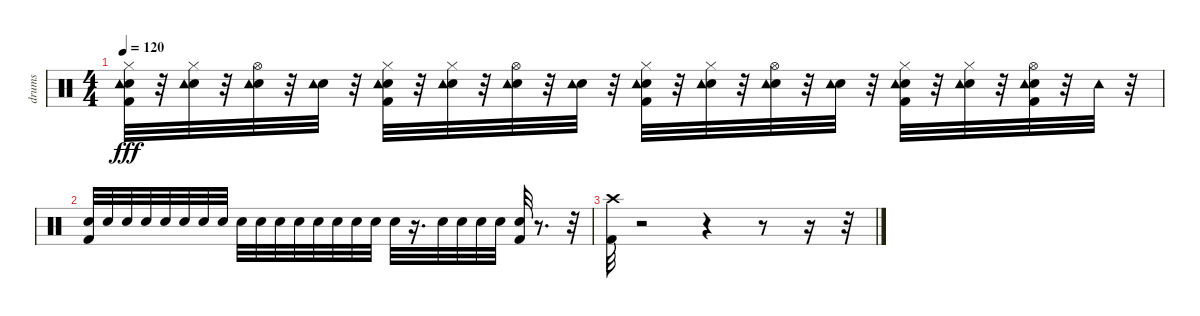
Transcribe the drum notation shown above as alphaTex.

\track ("drums" "drums") {instrument percussion}
\staff {score}
\articulation defaults
\ts (4 4)
\tempo 120
\clef neutral
\ks c
("Kick (hit) 2" "Snare (hit) 2" "Hi-Hat (closed)" "Tambourine (hit)").32{dy fff} r.32 ("Snare (hit) 2" "Hi-Hat (closed)" "Tambourine (hit)").32 r.32 ("Snare (hit) 2" "Hi-Hat (open)" "Tambourine (hit)").32 r.32 ("Snare (hit) 2" "Tambourine (hit)").32 r.32 ("Kick (hit) 2" "Snare (hit) 2" "Hi-Hat (closed)" "Tambourine (hit)").32 r.32 ("Snare (hit) 2" "Hi-Hat (closed)" "Tambourine (hit)").32 r.32 ("Snare (hit) 2" "Hi-Hat (open)" "Tambourine (hit)").32 r.32 ("Snare (hit) 2" "Tambourine (hit)").32 r.32 ("Kick (hit) 2" "Snare (hit) 2" "Hi-Hat (closed)" "Tambourine (hit)").32 r.32 ("Snare (hit) 2" "Hi-Hat (closed)" "Tambourine (hit)").32 r.32 ("Snare (hit) 2" "Hi-Hat (open)" "Tambourine (hit)").32 r.32 ("Snare (hit) 2" "Tambourine (hit)").32 r.32 ("Kick (hit) 2" "Snare (hit) 2" "Hi-Hat (closed)" "Tambourine (hit)").32 r.32 ("Snare (hit) 2" "Hi-Hat (closed)" "Tambourine (hit)").32 r.32 ("Kick (hit) 2" "Snare (hit) 2" "Hi-Hat (open)" "Tambourine (hit)").32 r.32 "Tambourine (hit)".32 r.32 |
("Kick (hit) 2" "Snare (hit) 2").32 "Snare (hit) 2".32 "Snare (hit) 2".32 "Snare (hit) 2".32 "Snare (hit) 2".32 "Snare (hit) 2".32 "Snare (hit) 2".32 "Snare (hit) 2".32 "Snare (hit) 2".32 "Snare (hit) 2".32 "Snare (hit) 2".32 "Snare (hit) 2".32 "Snare (hit) 2".32 "Snare (hit) 2".32 "Snare (hit) 2".32 "Snare (hit) 2".32 "Snare (hit) 2".32 r.16{d} "Snare (hit) 2".32 "Snare (hit) 2".32 "Snare (hit) 2".32 "Snare (hit) 2".32 ("Snare (hit) 2" "Kick (hit) 2").32 r.8{d} r.32 |
("Kick (hit) 2" "Crash high (hit)").32 r.2 r.4 r.8 r.16 r.32
